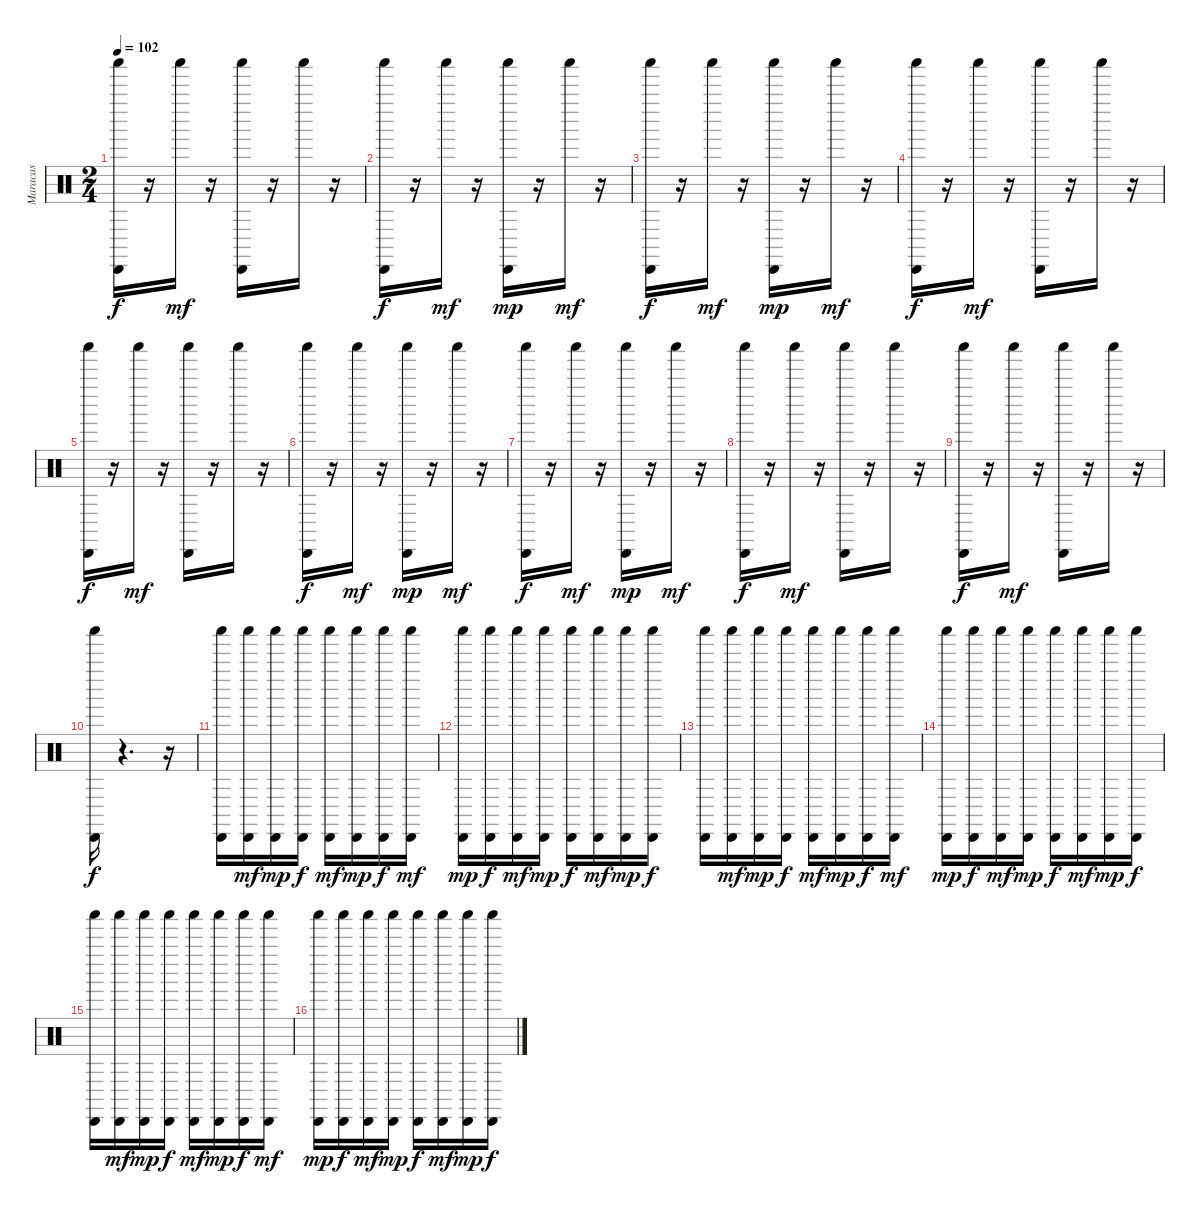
\track ("Maracas" "Maracas") {instrument percussion}
\staff {score}
\articulation defaults
\ts (2 4)
\tempo 102
\clef neutral
\ks c
("Shaker (hit)" "Cabasa (hit)").16{dy f} r.16 "Shaker (hit)".16{dy mf} r.16 ("Shaker (hit)" "Cabasa (hit)").16 r.16 "Shaker (hit)".16 r.16 |
("Shaker (hit)" "Cabasa (hit)").16{dy f} r.16 "Shaker (hit)".16{dy mf} r.16 ("Shaker (hit)" "Cabasa (hit)").16{dy mp} r.16 "Shaker (hit)".16{dy mf} r.16 |
("Cabasa (hit)" "Shaker (hit)").16{dy f} r.16 "Shaker (hit)".16{dy mf} r.16 ("Cabasa (hit)" "Shaker (hit)").16{dy mp} r.16 "Shaker (hit)".16{dy mf} r.16 |
("Cabasa (hit)" "Shaker (hit)").16{dy f} r.16 "Shaker (hit)".16{dy mf} r.16 ("Cabasa (hit)" "Shaker (hit)").16 r.16 "Shaker (hit)".16 r.16 |
("Shaker (hit)" "Cabasa (hit)").16{dy f} r.16 "Shaker (hit)".16{dy mf} r.16 ("Shaker (hit)" "Cabasa (hit)").16 r.16 "Shaker (hit)".16 r.16 |
("Shaker (hit)" "Cabasa (hit)").16{dy f} r.16 "Shaker (hit)".16{dy mf} r.16 ("Shaker (hit)" "Cabasa (hit)").16{dy mp} r.16 "Shaker (hit)".16{dy mf} r.16 |
("Cabasa (hit)" "Shaker (hit)").16{dy f} r.16 "Shaker (hit)".16{dy mf} r.16 ("Cabasa (hit)" "Shaker (hit)").16{dy mp} r.16 "Shaker (hit)".16{dy mf} r.16 |
("Cabasa (hit)" "Shaker (hit)").16{dy f} r.16 "Shaker (hit)".16{dy mf} r.16 ("Cabasa (hit)" "Shaker (hit)").16 r.16 "Shaker (hit)".16 r.16 |
("Shaker (hit)" "Cabasa (hit)").16{dy f} r.16 "Shaker (hit)".16{dy mf} r.16 ("Shaker (hit)" "Cabasa (hit)").16 r.16 "Shaker (hit)".16 r.16 |
("Shaker (hit)" "Cabasa (hit)").16{dy f} r.4{d} r.16 |
("Shaker (hit)" "Cabasa (hit)").16 ("Shaker (hit)" "Cabasa (hit)").16{dy mf} ("Shaker (hit)" "Cabasa (hit)").16{dy mp} ("Shaker (hit)" "Cabasa (hit)").16{dy f} ("Shaker (hit)" "Cabasa (hit)").16{dy mf} ("Shaker (hit)" "Cabasa (hit)").16{dy mp} ("Shaker (hit)" "Cabasa (hit)").16{dy f} ("Shaker (hit)" "Cabasa (hit)").16{dy mf} |
("Shaker (hit)" "Cabasa (hit)").16{dy mp} ("Shaker (hit)" "Cabasa (hit)").16{dy f} ("Shaker (hit)" "Cabasa (hit)").16{dy mf} ("Shaker (hit)" "Cabasa (hit)").16{dy mp} ("Shaker (hit)" "Cabasa (hit)").16{dy f} ("Shaker (hit)" "Cabasa (hit)").16{dy mf} ("Shaker (hit)" "Cabasa (hit)").16{dy mp} ("Shaker (hit)" "Cabasa (hit)").16{dy f} |
("Cabasa (hit)" "Shaker (hit)").16 ("Cabasa (hit)" "Shaker (hit)").16{dy mf} ("Cabasa (hit)" "Shaker (hit)").16{dy mp} ("Cabasa (hit)" "Shaker (hit)").16{dy f} ("Cabasa (hit)" "Shaker (hit)").16{dy mf} ("Cabasa (hit)" "Shaker (hit)").16{dy mp} ("Cabasa (hit)" "Shaker (hit)").16{dy f} ("Cabasa (hit)" "Shaker (hit)").16{dy mf} |
("Cabasa (hit)" "Shaker (hit)").16{dy mp} ("Cabasa (hit)" "Shaker (hit)").16{dy f} ("Cabasa (hit)" "Shaker (hit)").16{dy mf} ("Cabasa (hit)" "Shaker (hit)").16{dy mp} ("Cabasa (hit)" "Shaker (hit)").16{dy f} ("Cabasa (hit)" "Shaker (hit)").16{dy mf} ("Cabasa (hit)" "Shaker (hit)").16{dy mp} ("Cabasa (hit)" "Shaker (hit)").16{dy f} |
("Cabasa (hit)" "Shaker (hit)").16 ("Cabasa (hit)" "Shaker (hit)").16{dy mf} ("Cabasa (hit)" "Shaker (hit)").16{dy mp} ("Cabasa (hit)" "Shaker (hit)").16{dy f} ("Cabasa (hit)" "Shaker (hit)").16{dy mf} ("Cabasa (hit)" "Shaker (hit)").16{dy mp} ("Cabasa (hit)" "Shaker (hit)").16{dy f} ("Cabasa (hit)" "Shaker (hit)").16{dy mf} |
("Cabasa (hit)" "Shaker (hit)").16{dy mp} ("Cabasa (hit)" "Shaker (hit)").16{dy f} ("Cabasa (hit)" "Shaker (hit)").16{dy mf} ("Cabasa (hit)" "Shaker (hit)").16{dy mp} ("Cabasa (hit)" "Shaker (hit)").16{dy f} ("Cabasa (hit)" "Shaker (hit)").16{dy mf} ("Cabasa (hit)" "Shaker (hit)").16{dy mp} ("Cabasa (hit)" "Shaker (hit)").16{dy f}
